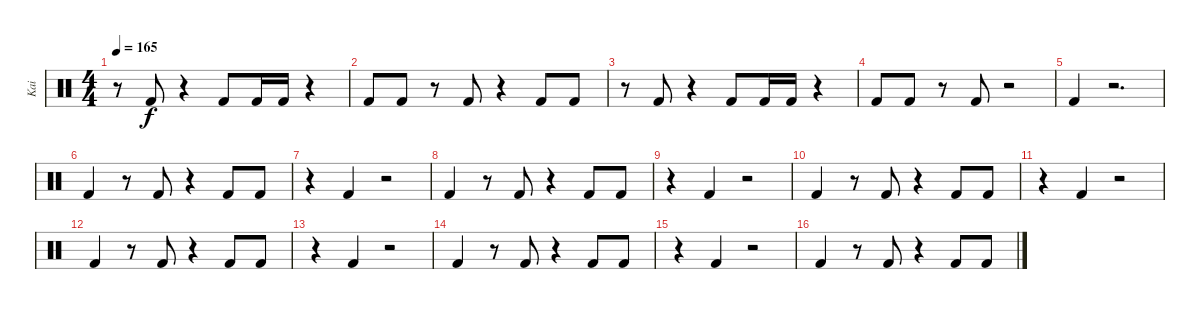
\track ("Kai" "Kai") {instrument percussion}
\staff {score}
\articulation defaults
\ts (4 4)
\tempo 165
\clef neutral
\ks c
r.8{dy f} "Kick (hit) 2".8 r.4 "Kick (hit) 2".8 "Kick (hit) 2".16 "Kick (hit) 2".16 r.4 |
"Kick (hit) 2".8 "Kick (hit) 2".8 r.8 "Kick (hit) 2".8 r.4 "Kick (hit) 2".8 "Kick (hit) 2".8 |
r.8 "Kick (hit) 2".8 r.4 "Kick (hit) 2".8 "Kick (hit) 2".16 "Kick (hit) 2".16 r.4 |
"Kick (hit) 2".8 "Kick (hit) 2".8 r.8 "Kick (hit) 2".8 r.2 |
"Kick (hit) 2".4 r.2{d} |
"Kick (hit) 2".4 r.8 "Kick (hit) 2".8 r.4 "Kick (hit) 2".8 "Kick (hit) 2".8 |
r.4 "Kick (hit) 2".4 r.2 |
"Kick (hit) 2".4 r.8 "Kick (hit) 2".8 r.4 "Kick (hit) 2".8 "Kick (hit) 2".8 |
r.4 "Kick (hit) 2".4 r.2 |
"Kick (hit) 2".4 r.8 "Kick (hit) 2".8 r.4 "Kick (hit) 2".8 "Kick (hit) 2".8 |
r.4 "Kick (hit) 2".4 r.2 |
"Kick (hit) 2".4 r.8 "Kick (hit) 2".8 r.4 "Kick (hit) 2".8 "Kick (hit) 2".8 |
r.4 "Kick (hit) 2".4 r.2 |
"Kick (hit) 2".4 r.8 "Kick (hit) 2".8 r.4 "Kick (hit) 2".8 "Kick (hit) 2".8 |
r.4 "Kick (hit) 2".4 r.2 |
"Kick (hit) 2".4 r.8 "Kick (hit) 2".8 r.4 "Kick (hit) 2".8 "Kick (hit) 2".8
